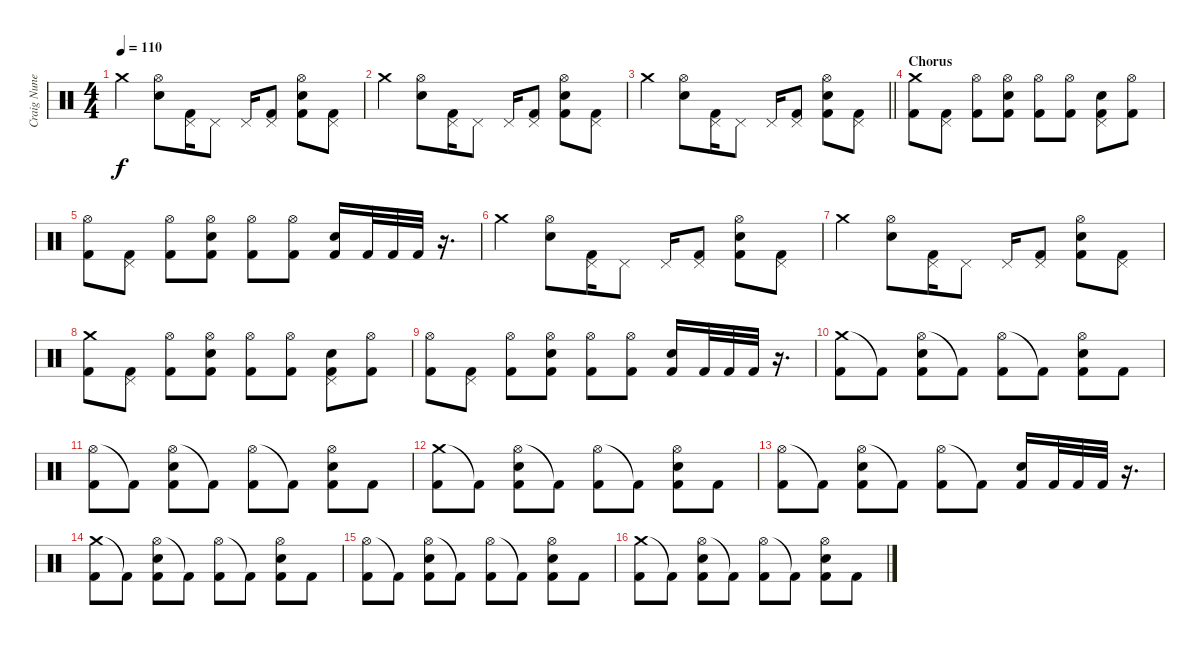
\track ("Craig Nunenmacher" "Craig Nune") {instrument percussion}
\staff {score}
\articulation defaults
\ts (4 4)
\tempo 110
\clef neutral
\ks c "Crash medium (hit)".4{dy f}
("Hi-Hat (open)" "Snare (hit) 2").8 ("Pedal Hi-Hat (hit)" "Kick (hit) 2").16 "Pedal Hi-Hat (hit)".8 "Pedal Hi-Hat (hit)".16 ("Pedal Hi-Hat (hit)" "Kick (hit) 2").8 ("Hi-Hat (open)" "Snare (hit) 2" "Kick (hit) 2").8 ("Pedal Hi-Hat (hit)" "Kick (hit) 2").8 |
"Crash medium (hit)".4 ("Hi-Hat (open)" "Snare (hit) 2").8 ("Pedal Hi-Hat (hit)" "Kick (hit) 2").16 "Pedal Hi-Hat (hit)".8 "Pedal Hi-Hat (hit)".16 ("Pedal Hi-Hat (hit)" "Kick (hit) 2").8 ("Hi-Hat (open)" "Snare (hit) 2" "Kick (hit) 2").8 ("Pedal Hi-Hat (hit)" "Kick (hit) 2").8 |
\barLineRight lightlight "Crash medium (hit)".4
("Hi-Hat (open)" "Snare (hit) 2").8 ("Pedal Hi-Hat (hit)" "Kick (hit) 2").16 "Pedal Hi-Hat (hit)".8 "Pedal Hi-Hat (hit)".16 ("Pedal Hi-Hat (hit)" "Kick (hit) 2").8 ("Hi-Hat (open)" "Snare (hit) 2" "Kick (hit) 2").8 ("Pedal Hi-Hat (hit)" "Kick (hit) 2").8 |
\section ("" "Chorus")
("Crash medium (hit)" "Kick (hit) 2").8 ("Pedal Hi-Hat (hit)" "Kick (hit) 2").8 ("Hi-Hat (open)" "Kick (hit) 2").8 ("Hi-Hat (open)" "Snare (hit) 2" "Kick (hit) 2").8 ("Hi-Hat (open)" "Kick (hit) 2").8 ("Hi-Hat (open)" "Kick (hit) 2").8 ("Pedal Hi-Hat (hit)" "Snare (hit) 2" "Kick (hit) 2").8 ("Hi-Hat (open)" "Kick (hit) 2").8 |
("Hi-Hat (open)" "Kick (hit) 2").8 ("Pedal Hi-Hat (hit)" "Kick (hit) 2").8 ("Hi-Hat (open)" "Kick (hit) 2").8 ("Hi-Hat (open)" "Snare (hit) 2" "Kick (hit) 2").8 ("Hi-Hat (open)" "Kick (hit) 2").8 ("Hi-Hat (open)" "Kick (hit) 2").8 ("Snare (hit) 2" "Kick (hit) 2").16 "Kick (hit) 2".32 "Kick (hit) 2".32 "Kick (hit) 2".32 r.16{d} |
"Crash medium (hit)".4 ("Hi-Hat (open)" "Snare (hit) 2").8 ("Pedal Hi-Hat (hit)" "Kick (hit) 2").16 "Pedal Hi-Hat (hit)".8 "Pedal Hi-Hat (hit)".16 ("Pedal Hi-Hat (hit)" "Kick (hit) 2").8 ("Hi-Hat (open)" "Snare (hit) 2" "Kick (hit) 2").8 ("Pedal Hi-Hat (hit)" "Kick (hit) 2").8 |
"Crash medium (hit)".4 ("Hi-Hat (open)" "Snare (hit) 2").8 ("Pedal Hi-Hat (hit)" "Kick (hit) 2").16 "Pedal Hi-Hat (hit)".8 "Pedal Hi-Hat (hit)".16 ("Pedal Hi-Hat (hit)" "Kick (hit) 2").8 ("Hi-Hat (open)" "Snare (hit) 2" "Kick (hit) 2").8 ("Pedal Hi-Hat (hit)" "Kick (hit) 2").8 |
("Crash medium (hit)" "Kick (hit) 2").8 ("Pedal Hi-Hat (hit)" "Kick (hit) 2").8 ("Hi-Hat (open)" "Kick (hit) 2").8 ("Hi-Hat (open)" "Snare (hit) 2" "Kick (hit) 2").8 ("Hi-Hat (open)" "Kick (hit) 2").8 ("Hi-Hat (open)" "Kick (hit) 2").8 ("Pedal Hi-Hat (hit)" "Snare (hit) 2" "Kick (hit) 2").8 ("Hi-Hat (open)" "Kick (hit) 2").8 |
("Hi-Hat (open)" "Kick (hit) 2").8 ("Pedal Hi-Hat (hit)" "Kick (hit) 2").8 ("Hi-Hat (open)" "Kick (hit) 2").8 ("Hi-Hat (open)" "Snare (hit) 2" "Kick (hit) 2").8 ("Hi-Hat (open)" "Kick (hit) 2").8 ("Hi-Hat (open)" "Kick (hit) 2").8 ("Snare (hit) 2" "Kick (hit) 2").16 "Kick (hit) 2".32 "Kick (hit) 2".32 "Kick (hit) 2".32 r.16{d} |
("Crash medium (hit)" "Kick (hit) 2").8 "Kick (hit) 2"{t}.8 ("Hi-Hat (open)" "Snare (hit) 2" "Kick (hit) 2").8 "Kick (hit) 2"{t}.8 ("Hi-Hat (open)" "Kick (hit) 2").8 "Kick (hit) 2"{t}.8 ("Hi-Hat (open)" "Snare (hit) 2" "Kick (hit) 2").8 "Kick (hit) 2".8 |
("Hi-Hat (open)" "Kick (hit) 2").8 "Kick (hit) 2"{t}.8 ("Hi-Hat (open)" "Snare (hit) 2" "Kick (hit) 2").8 "Kick (hit) 2"{t}.8 ("Hi-Hat (open)" "Kick (hit) 2").8 "Kick (hit) 2"{t}.8 ("Hi-Hat (open)" "Snare (hit) 2" "Kick (hit) 2").8 "Kick (hit) 2".8 |
("Crash medium (hit)" "Kick (hit) 2").8 "Kick (hit) 2"{t}.8 ("Hi-Hat (open)" "Snare (hit) 2" "Kick (hit) 2").8 "Kick (hit) 2"{t}.8 ("Hi-Hat (open)" "Kick (hit) 2").8 "Kick (hit) 2"{t}.8 ("Hi-Hat (open)" "Snare (hit) 2" "Kick (hit) 2").8 "Kick (hit) 2".8 |
("Hi-Hat (open)" "Kick (hit) 2").8 "Kick (hit) 2"{t}.8 ("Hi-Hat (open)" "Snare (hit) 2" "Kick (hit) 2").8 "Kick (hit) 2"{t}.8 ("Hi-Hat (open)" "Kick (hit) 2").8 "Kick (hit) 2"{t}.8 ("Snare (hit) 2" "Kick (hit) 2").16 "Kick (hit) 2".32 "Kick (hit) 2".32 "Kick (hit) 2".32 r.16{d} |
("Crash medium (hit)" "Kick (hit) 2").8 "Kick (hit) 2"{t}.8 ("Hi-Hat (open)" "Snare (hit) 2" "Kick (hit) 2").8 "Kick (hit) 2"{t}.8 ("Hi-Hat (open)" "Kick (hit) 2").8 "Kick (hit) 2"{t}.8 ("Hi-Hat (open)" "Snare (hit) 2" "Kick (hit) 2").8 "Kick (hit) 2".8 |
("Hi-Hat (open)" "Kick (hit) 2").8 "Kick (hit) 2"{t}.8 ("Hi-Hat (open)" "Snare (hit) 2" "Kick (hit) 2").8 "Kick (hit) 2"{t}.8 ("Hi-Hat (open)" "Kick (hit) 2").8 "Kick (hit) 2"{t}.8 ("Hi-Hat (open)" "Snare (hit) 2" "Kick (hit) 2").8 "Kick (hit) 2".8 |
("Crash medium (hit)" "Kick (hit) 2").8 "Kick (hit) 2"{t}.8 ("Hi-Hat (open)" "Snare (hit) 2" "Kick (hit) 2").8 "Kick (hit) 2"{t}.8 ("Hi-Hat (open)" "Kick (hit) 2").8 "Kick (hit) 2"{t}.8 ("Hi-Hat (open)" "Snare (hit) 2" "Kick (hit) 2").8 "Kick (hit) 2".8
